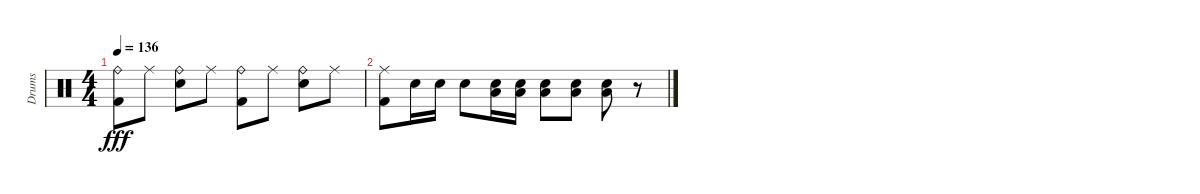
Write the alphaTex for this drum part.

\track ("Drums" "Drums") {instrument percussion}
\staff {score}
\articulation defaults
\ts (4 4)
\tempo 136
\clef neutral
\ks c
("Ride (bell)" "Kick (hit) 2").8{dy fff} "Ride (middle)".8 ("Ride (bell)" "Snare (hit) 2").8 "Ride (middle)".8 ("Ride (bell)" "Kick (hit) 2").8 "Ride (middle)".8 ("Ride (bell)" "Snare (hit) 2").8 "Ride (middle)".8 |
("Ride (middle)" "Kick (hit) 2").8 "Snare (hit) 2".16 "Snare (hit) 2".16 "Snare (hit) 2".8 ("Low Floor Tom (hit)" "Snare (hit) 2").16 ("Low Floor Tom (hit)" "Snare (hit) 2").16 ("Low Floor Tom (hit)" "Snare (hit) 2").8 ("Low Floor Tom (hit)" "Snare (hit) 2").8 ("Low Floor Tom (hit)" "Snare (hit) 2").8 r.8
